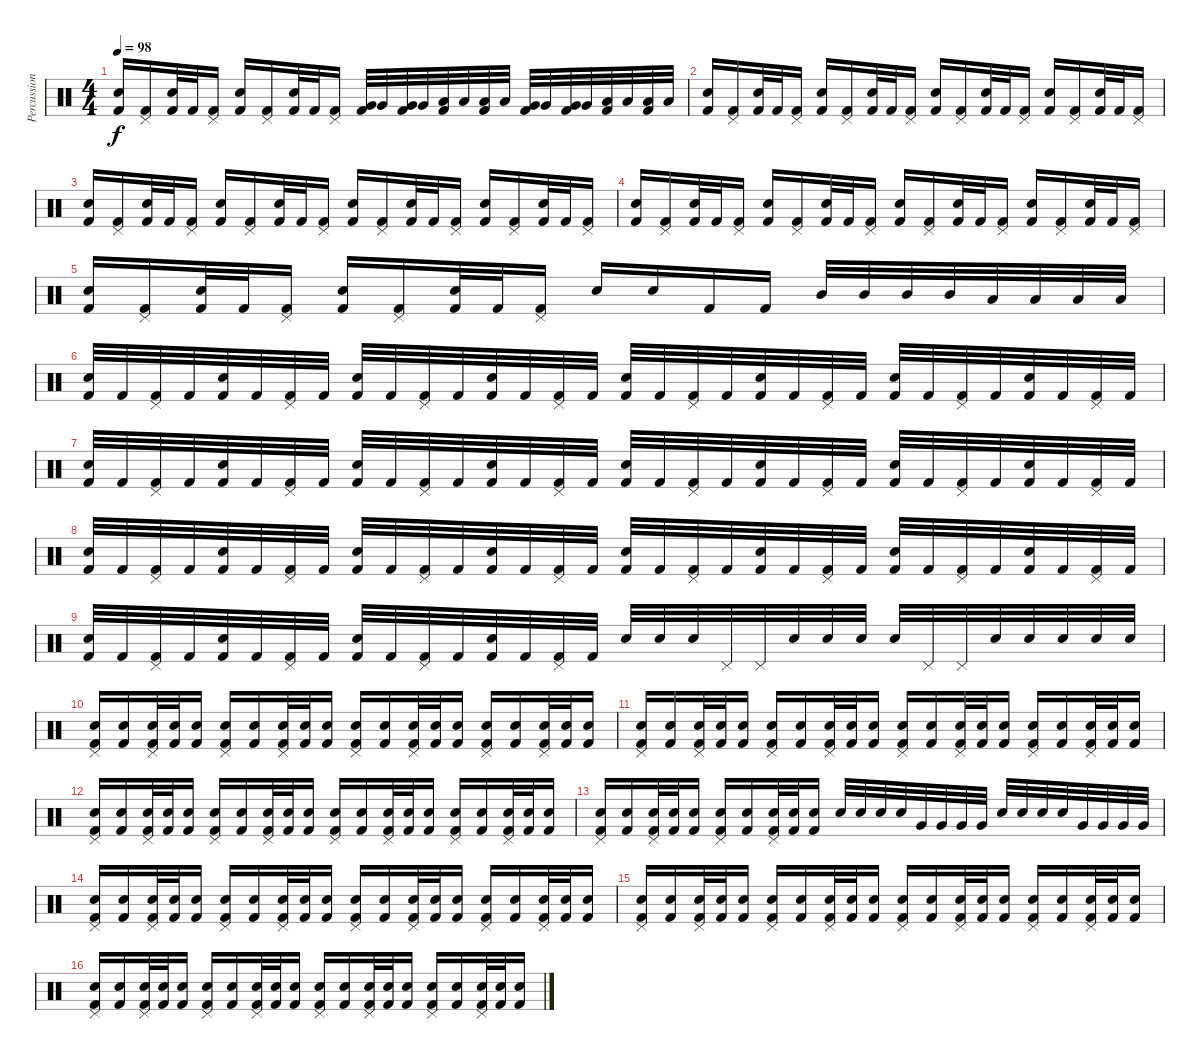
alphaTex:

\track ("Percussion" "Percussion") {instrument percussion}
\staff {score}
\articulation defaults
\ts (4 4)
\tempo 98
\clef neutral
\ks c
("Snare (hit) 2" "Kick (hit) 2").16{dy f} ("Pedal Hi-Hat (hit)" "Kick (hit) 2").16 ("Snare (hit) 2" "Kick (hit) 2").32 "Kick (hit) 2".32 ("Pedal Hi-Hat (hit)" "Kick (hit) 2").16 ("Snare (hit) 2" "Kick (hit) 2").16 ("Pedal Hi-Hat (hit)" "Kick (hit) 2").16 ("Snare (hit) 2" "Kick (hit) 2").32 "Kick (hit) 2".32 ("Pedal Hi-Hat (hit)" "Kick (hit) 2").16 ("Very Low Tom (hit)" "Kick (hit) 2").32 "Very Low Tom (hit)".32 ("Very Low Tom (hit)" "Kick (hit) 2").32 "Very Low Tom (hit)".32 ("Low Tom (hit)" "Kick (hit) 2").32 "Low Tom (hit)".32 ("Low Tom (hit)" "Kick (hit) 2").32 "Low Tom (hit)".32 ("Very Low Tom (hit)" "Kick (hit) 2").32 "Very Low Tom (hit)".32 ("Very Low Tom (hit)" "Kick (hit) 2").32 "Very Low Tom (hit)".32 ("Low Tom (hit)" "Kick (hit) 2").32 "Low Tom (hit)".32 ("Low Tom (hit)" "Kick (hit) 2").32 "Low Tom (hit)".32 |
("Snare (hit) 2" "Kick (hit) 2").16 ("Pedal Hi-Hat (hit)" "Kick (hit) 2").16 ("Snare (hit) 2" "Kick (hit) 2").32 "Kick (hit) 2".32 ("Pedal Hi-Hat (hit)" "Kick (hit) 2").16 ("Snare (hit) 2" "Kick (hit) 2").16 ("Pedal Hi-Hat (hit)" "Kick (hit) 2").16 ("Snare (hit) 2" "Kick (hit) 2").32 "Kick (hit) 2".32 ("Pedal Hi-Hat (hit)" "Kick (hit) 2").16 ("Snare (hit) 2" "Kick (hit) 2").16 ("Pedal Hi-Hat (hit)" "Kick (hit) 2").16 ("Snare (hit) 2" "Kick (hit) 2").32 "Kick (hit) 2".32 ("Pedal Hi-Hat (hit)" "Kick (hit) 2").16 ("Snare (hit) 2" "Kick (hit) 2").16 ("Pedal Hi-Hat (hit)" "Kick (hit) 2").16 ("Snare (hit) 2" "Kick (hit) 2").32 "Kick (hit) 2".32 ("Pedal Hi-Hat (hit)" "Kick (hit) 2").16 |
("Snare (hit) 2" "Kick (hit) 2").16 ("Pedal Hi-Hat (hit)" "Kick (hit) 2").16 ("Snare (hit) 2" "Kick (hit) 2").32 "Kick (hit) 2".32 ("Pedal Hi-Hat (hit)" "Kick (hit) 2").16 ("Snare (hit) 2" "Kick (hit) 2").16 ("Pedal Hi-Hat (hit)" "Kick (hit) 2").16 ("Snare (hit) 2" "Kick (hit) 2").32 "Kick (hit) 2".32 ("Pedal Hi-Hat (hit)" "Kick (hit) 2").16 ("Snare (hit) 2" "Kick (hit) 2").16 ("Pedal Hi-Hat (hit)" "Kick (hit) 2").16 ("Snare (hit) 2" "Kick (hit) 2").32 "Kick (hit) 2".32 ("Pedal Hi-Hat (hit)" "Kick (hit) 2").16 ("Snare (hit) 2" "Kick (hit) 2").16 ("Pedal Hi-Hat (hit)" "Kick (hit) 2").16 ("Snare (hit) 2" "Kick (hit) 2").32 "Kick (hit) 2".32 ("Pedal Hi-Hat (hit)" "Kick (hit) 2").16 |
("Snare (hit) 2" "Kick (hit) 2").16 ("Pedal Hi-Hat (hit)" "Kick (hit) 2").16 ("Snare (hit) 2" "Kick (hit) 2").32 "Kick (hit) 2".32 ("Pedal Hi-Hat (hit)" "Kick (hit) 2").16 ("Snare (hit) 2" "Kick (hit) 2").16 ("Pedal Hi-Hat (hit)" "Kick (hit) 2").16 ("Snare (hit) 2" "Kick (hit) 2").32 "Kick (hit) 2".32 ("Pedal Hi-Hat (hit)" "Kick (hit) 2").16 ("Snare (hit) 2" "Kick (hit) 2").16 ("Pedal Hi-Hat (hit)" "Kick (hit) 2").16 ("Snare (hit) 2" "Kick (hit) 2").32 "Kick (hit) 2".32 ("Pedal Hi-Hat (hit)" "Kick (hit) 2").16 ("Snare (hit) 2" "Kick (hit) 2").16 ("Pedal Hi-Hat (hit)" "Kick (hit) 2").16 ("Snare (hit) 2" "Kick (hit) 2").32 "Kick (hit) 2".32 ("Pedal Hi-Hat (hit)" "Kick (hit) 2").16 |
("Snare (hit) 2" "Kick (hit) 2").16 ("Pedal Hi-Hat (hit)" "Kick (hit) 2").16 ("Snare (hit) 2" "Kick (hit) 2").32 "Kick (hit) 2".32 ("Pedal Hi-Hat (hit)" "Kick (hit) 2").16 ("Snare (hit) 2" "Kick (hit) 2").16 ("Pedal Hi-Hat (hit)" "Kick (hit) 2").16 ("Snare (hit) 2" "Kick (hit) 2").32 "Kick (hit) 2".32 ("Pedal Hi-Hat (hit)" "Kick (hit) 2").16 "Snare (hit) 2".16 "Snare (hit) 2".16 "Kick (hit) 2".16 "Kick (hit) 2".16 "Mid Tom (hit)".32 "Mid Tom (hit)".32 "Mid Tom (hit)".32 "Mid Tom (hit)".32 "Low Tom (hit)".32 "Low Tom (hit)".32 "Low Tom (hit)".32 "Low Tom (hit)".32 |
("Snare (hit) 2" "Kick (hit) 2").32 "Kick (hit) 2".32 ("Pedal Hi-Hat (hit)" "Kick (hit) 2").32 "Kick (hit) 2".32 ("Snare (hit) 2" "Kick (hit) 2").32 "Kick (hit) 2".32 ("Pedal Hi-Hat (hit)" "Kick (hit) 2").32 "Kick (hit) 2".32 ("Snare (hit) 2" "Kick (hit) 2").32 "Kick (hit) 2".32 ("Pedal Hi-Hat (hit)" "Kick (hit) 2").32 "Kick (hit) 2".32 ("Snare (hit) 2" "Kick (hit) 2").32 "Kick (hit) 2".32 ("Pedal Hi-Hat (hit)" "Kick (hit) 2").32 "Kick (hit) 2".32 ("Snare (hit) 2" "Kick (hit) 2").32 "Kick (hit) 2".32 ("Pedal Hi-Hat (hit)" "Kick (hit) 2").32 "Kick (hit) 2".32 ("Snare (hit) 2" "Kick (hit) 2").32 "Kick (hit) 2".32 ("Pedal Hi-Hat (hit)" "Kick (hit) 2").32 "Kick (hit) 2".32 ("Snare (hit) 2" "Kick (hit) 2").32 "Kick (hit) 2".32 ("Pedal Hi-Hat (hit)" "Kick (hit) 2").32 "Kick (hit) 2".32 ("Snare (hit) 2" "Kick (hit) 2").32 "Kick (hit) 2".32 ("Pedal Hi-Hat (hit)" "Kick (hit) 2").32 "Kick (hit) 2".32 |
("Snare (hit) 2" "Kick (hit) 2").32 "Kick (hit) 2".32 ("Pedal Hi-Hat (hit)" "Kick (hit) 2").32 "Kick (hit) 2".32 ("Snare (hit) 2" "Kick (hit) 2").32 "Kick (hit) 2".32 ("Pedal Hi-Hat (hit)" "Kick (hit) 2").32 "Kick (hit) 2".32 ("Snare (hit) 2" "Kick (hit) 2").32 "Kick (hit) 2".32 ("Pedal Hi-Hat (hit)" "Kick (hit) 2").32 "Kick (hit) 2".32 ("Snare (hit) 2" "Kick (hit) 2").32 "Kick (hit) 2".32 ("Pedal Hi-Hat (hit)" "Kick (hit) 2").32 "Kick (hit) 2".32 ("Snare (hit) 2" "Kick (hit) 2").32 "Kick (hit) 2".32 ("Pedal Hi-Hat (hit)" "Kick (hit) 2").32 "Kick (hit) 2".32 ("Snare (hit) 2" "Kick (hit) 2").32 "Kick (hit) 2".32 ("Pedal Hi-Hat (hit)" "Kick (hit) 2").32 "Kick (hit) 2".32 ("Snare (hit) 2" "Kick (hit) 2").32 "Kick (hit) 2".32 ("Pedal Hi-Hat (hit)" "Kick (hit) 2").32 "Kick (hit) 2".32 ("Snare (hit) 2" "Kick (hit) 2").32 "Kick (hit) 2".32 ("Pedal Hi-Hat (hit)" "Kick (hit) 2").32 "Kick (hit) 2".32 |
("Snare (hit) 2" "Kick (hit) 2").32 "Kick (hit) 2".32 ("Pedal Hi-Hat (hit)" "Kick (hit) 2").32 "Kick (hit) 2".32 ("Snare (hit) 2" "Kick (hit) 2").32 "Kick (hit) 2".32 ("Pedal Hi-Hat (hit)" "Kick (hit) 2").32 "Kick (hit) 2".32 ("Snare (hit) 2" "Kick (hit) 2").32 "Kick (hit) 2".32 ("Pedal Hi-Hat (hit)" "Kick (hit) 2").32 "Kick (hit) 2".32 ("Snare (hit) 2" "Kick (hit) 2").32 "Kick (hit) 2".32 ("Pedal Hi-Hat (hit)" "Kick (hit) 2").32 "Kick (hit) 2".32 ("Snare (hit) 2" "Kick (hit) 2").32 "Kick (hit) 2".32 ("Pedal Hi-Hat (hit)" "Kick (hit) 2").32 "Kick (hit) 2".32 ("Snare (hit) 2" "Kick (hit) 2").32 "Kick (hit) 2".32 ("Pedal Hi-Hat (hit)" "Kick (hit) 2").32 "Kick (hit) 2".32 ("Snare (hit) 2" "Kick (hit) 2").32 "Kick (hit) 2".32 ("Pedal Hi-Hat (hit)" "Kick (hit) 2").32 "Kick (hit) 2".32 ("Snare (hit) 2" "Kick (hit) 2").32 "Kick (hit) 2".32 ("Pedal Hi-Hat (hit)" "Kick (hit) 2").32 "Kick (hit) 2".32 |
("Snare (hit) 2" "Kick (hit) 2").32 "Kick (hit) 2".32 ("Pedal Hi-Hat (hit)" "Kick (hit) 2").32 "Kick (hit) 2".32 ("Snare (hit) 2" "Kick (hit) 2").32 "Kick (hit) 2".32 ("Pedal Hi-Hat (hit)" "Kick (hit) 2").32 "Kick (hit) 2".32 ("Snare (hit) 2" "Kick (hit) 2").32 "Kick (hit) 2".32 ("Pedal Hi-Hat (hit)" "Kick (hit) 2").32 "Kick (hit) 2".32 ("Snare (hit) 2" "Kick (hit) 2").32 "Kick (hit) 2".32 ("Pedal Hi-Hat (hit)" "Kick (hit) 2").32 "Kick (hit) 2".32 "Snare (hit) 2".32 "Snare (hit) 2".32 "Snare (hit) 2".32 "Pedal Hi-Hat (hit)".32 "Pedal Hi-Hat (hit)".32 "Snare (hit) 2".32 "Snare (hit) 2".32 "Snare (hit) 2".32 "Snare (hit) 2".32 "Pedal Hi-Hat (hit)".32 "Pedal Hi-Hat (hit)".32 "Snare (hit) 2".32 "Snare (hit) 2".32 "Snare (hit) 2".32 "Snare (hit) 2".32 "Snare (hit) 2".32 |
("Pedal Hi-Hat (hit)" "Snare (hit) 2" "Kick (hit) 2").16 ("Snare (hit) 2" "Kick (hit) 2").16 ("Pedal Hi-Hat (hit)" "Snare (hit) 2" "Kick (hit) 2").32 ("Snare (hit) 2" "Kick (hit) 2").32 ("Snare (hit) 2" "Kick (hit) 2").16 ("Pedal Hi-Hat (hit)" "Snare (hit) 2" "Kick (hit) 2").16 ("Snare (hit) 2" "Kick (hit) 2").16 ("Pedal Hi-Hat (hit)" "Snare (hit) 2" "Kick (hit) 2").32 ("Snare (hit) 2" "Kick (hit) 2").32 ("Snare (hit) 2" "Kick (hit) 2").16 ("Pedal Hi-Hat (hit)" "Snare (hit) 2" "Kick (hit) 2").16 ("Snare (hit) 2" "Kick (hit) 2").16 ("Pedal Hi-Hat (hit)" "Snare (hit) 2" "Kick (hit) 2").32 ("Snare (hit) 2" "Kick (hit) 2").32 ("Snare (hit) 2" "Kick (hit) 2").16 ("Pedal Hi-Hat (hit)" "Snare (hit) 2" "Kick (hit) 2").16 ("Snare (hit) 2" "Kick (hit) 2").16 ("Pedal Hi-Hat (hit)" "Snare (hit) 2" "Kick (hit) 2").32 ("Snare (hit) 2" "Kick (hit) 2").32 ("Snare (hit) 2" "Kick (hit) 2").16 |
("Pedal Hi-Hat (hit)" "Snare (hit) 2" "Kick (hit) 2").16 ("Snare (hit) 2" "Kick (hit) 2").16 ("Pedal Hi-Hat (hit)" "Snare (hit) 2" "Kick (hit) 2").32 ("Snare (hit) 2" "Kick (hit) 2").32 ("Snare (hit) 2" "Kick (hit) 2").16 ("Pedal Hi-Hat (hit)" "Snare (hit) 2" "Kick (hit) 2").16 ("Snare (hit) 2" "Kick (hit) 2").16 ("Pedal Hi-Hat (hit)" "Snare (hit) 2" "Kick (hit) 2").32 ("Snare (hit) 2" "Kick (hit) 2").32 ("Snare (hit) 2" "Kick (hit) 2").16 ("Pedal Hi-Hat (hit)" "Snare (hit) 2" "Kick (hit) 2").16 ("Snare (hit) 2" "Kick (hit) 2").16 ("Pedal Hi-Hat (hit)" "Snare (hit) 2" "Kick (hit) 2").32 ("Snare (hit) 2" "Kick (hit) 2").32 ("Snare (hit) 2" "Kick (hit) 2").16 ("Pedal Hi-Hat (hit)" "Snare (hit) 2" "Kick (hit) 2").16 ("Snare (hit) 2" "Kick (hit) 2").16 ("Pedal Hi-Hat (hit)" "Snare (hit) 2" "Kick (hit) 2").32 ("Snare (hit) 2" "Kick (hit) 2").32 ("Snare (hit) 2" "Kick (hit) 2").16 |
("Pedal Hi-Hat (hit)" "Snare (hit) 2" "Kick (hit) 2").16 ("Snare (hit) 2" "Kick (hit) 2").16 ("Pedal Hi-Hat (hit)" "Snare (hit) 2" "Kick (hit) 2").32 ("Snare (hit) 2" "Kick (hit) 2").32 ("Snare (hit) 2" "Kick (hit) 2").16 ("Pedal Hi-Hat (hit)" "Snare (hit) 2" "Kick (hit) 2").16 ("Snare (hit) 2" "Kick (hit) 2").16 ("Pedal Hi-Hat (hit)" "Snare (hit) 2" "Kick (hit) 2").32 ("Snare (hit) 2" "Kick (hit) 2").32 ("Snare (hit) 2" "Kick (hit) 2").16 ("Pedal Hi-Hat (hit)" "Snare (hit) 2" "Kick (hit) 2").16 ("Snare (hit) 2" "Kick (hit) 2").16 ("Pedal Hi-Hat (hit)" "Snare (hit) 2" "Kick (hit) 2").32 ("Snare (hit) 2" "Kick (hit) 2").32 ("Snare (hit) 2" "Kick (hit) 2").16 ("Pedal Hi-Hat (hit)" "Snare (hit) 2" "Kick (hit) 2").16 ("Snare (hit) 2" "Kick (hit) 2").16 ("Pedal Hi-Hat (hit)" "Snare (hit) 2" "Kick (hit) 2").32 ("Snare (hit) 2" "Kick (hit) 2").32 ("Snare (hit) 2" "Kick (hit) 2").16 |
("Pedal Hi-Hat (hit)" "Snare (hit) 2" "Kick (hit) 2").16 ("Snare (hit) 2" "Kick (hit) 2").16 ("Pedal Hi-Hat (hit)" "Snare (hit) 2" "Kick (hit) 2").32 ("Snare (hit) 2" "Kick (hit) 2").32 ("Snare (hit) 2" "Kick (hit) 2").16 ("Pedal Hi-Hat (hit)" "Snare (hit) 2" "Kick (hit) 2").16 ("Snare (hit) 2" "Kick (hit) 2").16 ("Pedal Hi-Hat (hit)" "Snare (hit) 2" "Kick (hit) 2").32 ("Snare (hit) 2" "Kick (hit) 2").32 ("Snare (hit) 2" "Kick (hit) 2").16 "Snare (hit) 2".32 "Snare (hit) 2".32 "Snare (hit) 2".32 "Snare (hit) 2".32 "Very Low Tom (hit)".32 "Very Low Tom (hit)".32 "Very Low Tom (hit)".32 "Very Low Tom (hit)".32 "Snare (hit) 2".32 "Snare (hit) 2".32 "Snare (hit) 2".32 "Snare (hit) 2".32 "Very Low Tom (hit)".32 "Very Low Tom (hit)".32 "Very Low Tom (hit)".32 "Very Low Tom (hit)".32 |
("Pedal Hi-Hat (hit)" "Snare (hit) 2" "Kick (hit) 2").16 ("Snare (hit) 2" "Kick (hit) 2").16 ("Pedal Hi-Hat (hit)" "Snare (hit) 2" "Kick (hit) 2").32 ("Snare (hit) 2" "Kick (hit) 2").32 ("Snare (hit) 2" "Kick (hit) 2").16 ("Pedal Hi-Hat (hit)" "Snare (hit) 2" "Kick (hit) 2").16 ("Snare (hit) 2" "Kick (hit) 2").16 ("Pedal Hi-Hat (hit)" "Snare (hit) 2" "Kick (hit) 2").32 ("Snare (hit) 2" "Kick (hit) 2").32 ("Snare (hit) 2" "Kick (hit) 2").16 ("Pedal Hi-Hat (hit)" "Snare (hit) 2" "Kick (hit) 2").16 ("Snare (hit) 2" "Kick (hit) 2").16 ("Pedal Hi-Hat (hit)" "Snare (hit) 2" "Kick (hit) 2").32 ("Snare (hit) 2" "Kick (hit) 2").32 ("Snare (hit) 2" "Kick (hit) 2").16 ("Pedal Hi-Hat (hit)" "Snare (hit) 2" "Kick (hit) 2").16 ("Snare (hit) 2" "Kick (hit) 2").16 ("Pedal Hi-Hat (hit)" "Snare (hit) 2" "Kick (hit) 2").32 ("Snare (hit) 2" "Kick (hit) 2").32 ("Snare (hit) 2" "Kick (hit) 2").16 |
("Pedal Hi-Hat (hit)" "Snare (hit) 2" "Kick (hit) 2").16 ("Snare (hit) 2" "Kick (hit) 2").16 ("Pedal Hi-Hat (hit)" "Snare (hit) 2" "Kick (hit) 2").32 ("Snare (hit) 2" "Kick (hit) 2").32 ("Snare (hit) 2" "Kick (hit) 2").16 ("Pedal Hi-Hat (hit)" "Snare (hit) 2" "Kick (hit) 2").16 ("Snare (hit) 2" "Kick (hit) 2").16 ("Pedal Hi-Hat (hit)" "Snare (hit) 2" "Kick (hit) 2").32 ("Snare (hit) 2" "Kick (hit) 2").32 ("Snare (hit) 2" "Kick (hit) 2").16 ("Pedal Hi-Hat (hit)" "Snare (hit) 2" "Kick (hit) 2").16 ("Snare (hit) 2" "Kick (hit) 2").16 ("Pedal Hi-Hat (hit)" "Snare (hit) 2" "Kick (hit) 2").32 ("Snare (hit) 2" "Kick (hit) 2").32 ("Snare (hit) 2" "Kick (hit) 2").16 ("Pedal Hi-Hat (hit)" "Snare (hit) 2" "Kick (hit) 2").16 ("Snare (hit) 2" "Kick (hit) 2").16 ("Pedal Hi-Hat (hit)" "Snare (hit) 2" "Kick (hit) 2").32 ("Snare (hit) 2" "Kick (hit) 2").32 ("Snare (hit) 2" "Kick (hit) 2").16 |
("Pedal Hi-Hat (hit)" "Snare (hit) 2" "Kick (hit) 2").16 ("Snare (hit) 2" "Kick (hit) 2").16 ("Pedal Hi-Hat (hit)" "Snare (hit) 2" "Kick (hit) 2").32 ("Snare (hit) 2" "Kick (hit) 2").32 ("Snare (hit) 2" "Kick (hit) 2").16 ("Pedal Hi-Hat (hit)" "Snare (hit) 2" "Kick (hit) 2").16 ("Snare (hit) 2" "Kick (hit) 2").16 ("Pedal Hi-Hat (hit)" "Snare (hit) 2" "Kick (hit) 2").32 ("Snare (hit) 2" "Kick (hit) 2").32 ("Snare (hit) 2" "Kick (hit) 2").16 ("Pedal Hi-Hat (hit)" "Snare (hit) 2" "Kick (hit) 2").16 ("Snare (hit) 2" "Kick (hit) 2").16 ("Pedal Hi-Hat (hit)" "Snare (hit) 2" "Kick (hit) 2").32 ("Snare (hit) 2" "Kick (hit) 2").32 ("Snare (hit) 2" "Kick (hit) 2").16 ("Pedal Hi-Hat (hit)" "Snare (hit) 2" "Kick (hit) 2").16 ("Snare (hit) 2" "Kick (hit) 2").16 ("Pedal Hi-Hat (hit)" "Snare (hit) 2" "Kick (hit) 2").32 ("Snare (hit) 2" "Kick (hit) 2").32 ("Snare (hit) 2" "Kick (hit) 2").16
